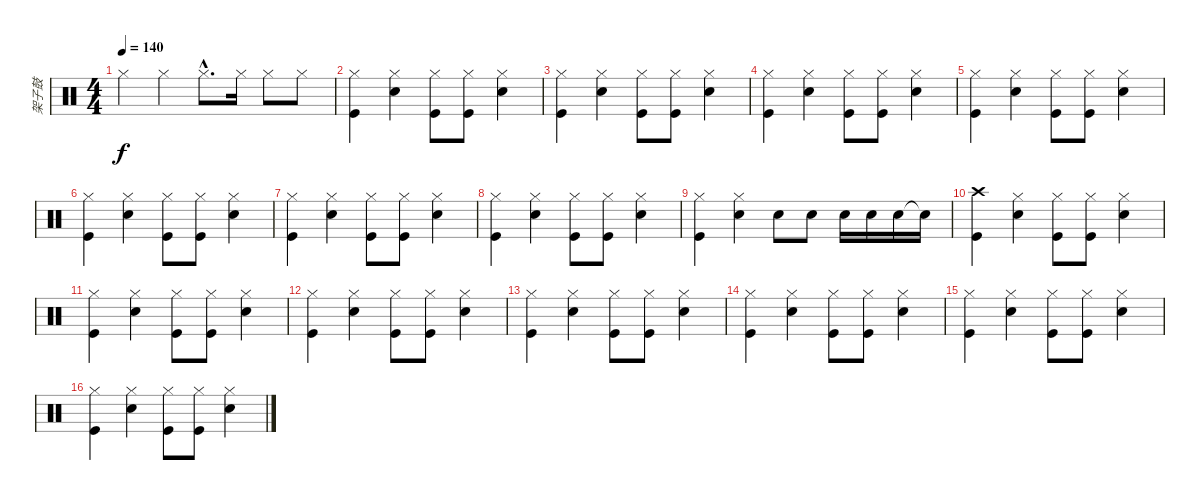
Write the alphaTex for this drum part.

\track ("架子鼓" "架子鼓") {instrument percussion}
\staff {score}
\articulation defaults
\ts (4 4)
\tempo 140
\clef neutral
\ks c "Hi-Hat (closed)".4{dy f} "Hi-Hat (closed)".4 "Hi-Hat (closed)"{hac}.8{d} "Hi-Hat (closed)".16 "Hi-Hat (closed)".8 "Hi-Hat (closed)".8
|
("Hi-Hat (closed)" "Kick (hit)").4 ("Hi-Hat (closed)" "Electric Snare (hit)").4 ("Hi-Hat (closed)" "Kick (hit)").8 ("Hi-Hat (closed)" "Kick (hit)").8 ("Hi-Hat (closed)" "Electric Snare (hit)").4 |
("Hi-Hat (closed)" "Kick (hit)").4 ("Hi-Hat (closed)" "Electric Snare (hit)").4 ("Hi-Hat (closed)" "Kick (hit)").8 ("Hi-Hat (closed)" "Kick (hit)").8 ("Hi-Hat (closed)" "Electric Snare (hit)").4 |
("Hi-Hat (closed)" "Kick (hit)").4 ("Hi-Hat (closed)" "Electric Snare (hit)").4 ("Hi-Hat (closed)" "Kick (hit)").8 ("Hi-Hat (closed)" "Kick (hit)").8 ("Hi-Hat (closed)" "Electric Snare (hit)").4 |
("Hi-Hat (closed)" "Kick (hit)").4 ("Hi-Hat (closed)" "Electric Snare (hit)").4 ("Hi-Hat (closed)" "Kick (hit)").8 ("Hi-Hat (closed)" "Kick (hit)").8 ("Hi-Hat (closed)" "Electric Snare (hit)").4 |
("Hi-Hat (closed)" "Kick (hit)").4 ("Hi-Hat (closed)" "Electric Snare (hit)").4 ("Hi-Hat (closed)" "Kick (hit)").8 ("Hi-Hat (closed)" "Kick (hit)").8 ("Hi-Hat (closed)" "Electric Snare (hit)").4 |
("Hi-Hat (closed)" "Kick (hit)").4 ("Hi-Hat (closed)" "Electric Snare (hit)").4 ("Hi-Hat (closed)" "Kick (hit)").8 ("Hi-Hat (closed)" "Kick (hit)").8 ("Hi-Hat (closed)" "Electric Snare (hit)").4 |
("Hi-Hat (closed)" "Kick (hit)").4 ("Hi-Hat (closed)" "Electric Snare (hit)").4 ("Hi-Hat (closed)" "Kick (hit)").8 ("Hi-Hat (closed)" "Kick (hit)").8 ("Hi-Hat (closed)" "Electric Snare (hit)").4 |
("Hi-Hat (closed)" "Kick (hit)").4 ("Hi-Hat (closed)" "Electric Snare (hit)").4 "Electric Snare (hit)".8 "Electric Snare (hit)".8 "Electric Snare (hit)".16 "Electric Snare (hit)".16 "Electric Snare (hit)".16 "Snare (hit)"{t}.16 |
("Crash high (hit)" "Kick (hit)").4 ("Hi-Hat (closed)" "Electric Snare (hit)").4 ("Hi-Hat (closed)" "Kick (hit)").8 ("Hi-Hat (closed)" "Kick (hit)").8 ("Hi-Hat (closed)" "Electric Snare (hit)").4 |
("Hi-Hat (closed)" "Kick (hit)").4 ("Hi-Hat (closed)" "Electric Snare (hit)").4 ("Hi-Hat (closed)" "Kick (hit)").8 ("Hi-Hat (closed)" "Kick (hit)").8 ("Hi-Hat (closed)" "Electric Snare (hit)").4 |
("Hi-Hat (closed)" "Kick (hit)").4 ("Hi-Hat (closed)" "Electric Snare (hit)").4 ("Hi-Hat (closed)" "Kick (hit)").8 ("Hi-Hat (closed)" "Kick (hit)").8 ("Hi-Hat (closed)" "Electric Snare (hit)").4 |
("Hi-Hat (closed)" "Kick (hit)").4 ("Hi-Hat (closed)" "Electric Snare (hit)").4 ("Hi-Hat (closed)" "Kick (hit)").8 ("Hi-Hat (closed)" "Kick (hit)").8 ("Hi-Hat (closed)" "Electric Snare (hit)").4 |
("Hi-Hat (closed)" "Kick (hit)").4 ("Hi-Hat (closed)" "Electric Snare (hit)").4 ("Hi-Hat (closed)" "Kick (hit)").8 ("Hi-Hat (closed)" "Kick (hit)").8 ("Hi-Hat (closed)" "Electric Snare (hit)").4 |
("Hi-Hat (closed)" "Kick (hit)").4 ("Hi-Hat (closed)" "Electric Snare (hit)").4 ("Hi-Hat (closed)" "Kick (hit)").8 ("Hi-Hat (closed)" "Kick (hit)").8 ("Hi-Hat (closed)" "Electric Snare (hit)").4 |
("Hi-Hat (closed)" "Kick (hit)").4 ("Hi-Hat (closed)" "Electric Snare (hit)").4 ("Hi-Hat (closed)" "Kick (hit)").8 ("Hi-Hat (closed)" "Kick (hit)").8 ("Hi-Hat (closed)" "Electric Snare (hit)").4
